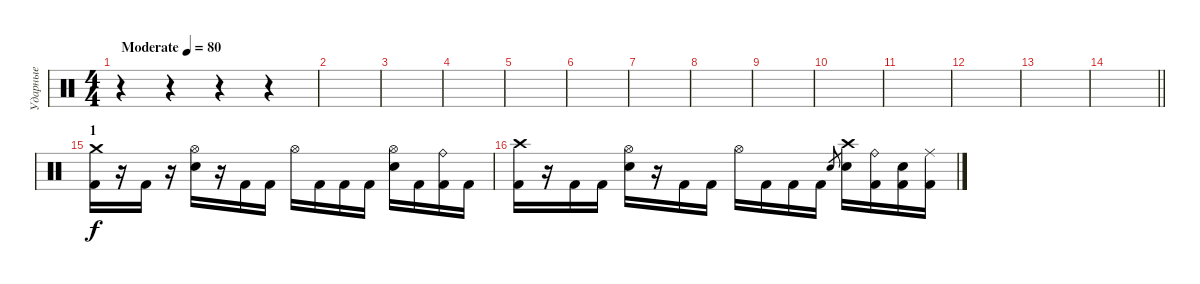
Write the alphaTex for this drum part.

\track ("Ударные" "Ударные") {instrument percussion}
\staff {score}
\articulation defaults
\ts (4 4)
\tempo (80 "Moderate")
\clef neutral
\ks c
r.4{dy f} r.4 r.4 r.4 |
|
|
|
|
|
|
|
|
|
|
|
|
\barLineRight lightlight
|
\section ("" "1")
("Crash medium (hit)" "Kick (hit) 2").16 r.16 "Kick (hit) 2".16 r.16 ("Hi-Hat (open)" "Electric Snare (hit)").16 r.16 "Kick (hit) 2".16 "Kick (hit) 2".16 "Hi-Hat (open)".16 "Kick (hit) 2".16 "Kick (hit) 2".16 "Kick (hit) 2".16 ("Hi-Hat (open)" "Electric Snare (hit)").16 "Kick (hit) 2".16 ("Ride (bell)" "Kick (hit) 2").16 "Kick (hit) 2".16 |
("Crash high (hit)" "Kick (hit) 2").16 r.16 "Kick (hit) 2".16 "Kick (hit) 2".16 ("Hi-Hat (open)" "Electric Snare (hit)").16 r.16 "Kick (hit) 2".16 "Kick (hit) 2".16 "Hi-Hat (open)".16 "Kick (hit) 2".16 "Kick (hit) 2".16 "Kick (hit) 2".16 "Electric Snare (hit)".8{gr} ("Crash high (hit)" "Electric Snare (hit)").16 ("Ride (bell)" "Kick (hit) 2").16 ("Electric Snare (hit)" "Kick (hit) 2").16 ("Ride (middle)" "Kick (hit) 2").16
